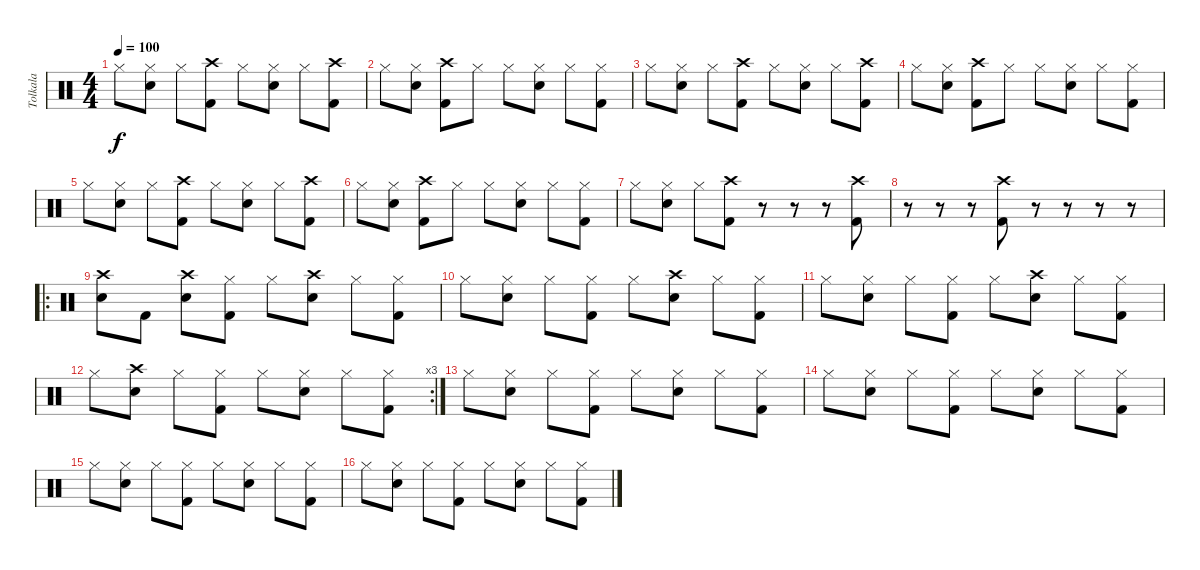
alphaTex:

\track ("Tolkala" "Tolkala") {instrument percussion}
\staff {score}
\articulation defaults
\ts (4 4)
\tempo 100
\clef neutral
\ks c "Hi-Hat (closed)".8{dy f}
("Hi-Hat (closed)" "Snare (hit) 2").8 "Hi-Hat (closed)".8 ("Crash high (hit)" "Kick (hit) 2").8 "Hi-Hat (closed)".8 ("Hi-Hat (closed)" "Snare (hit) 2").8 "Hi-Hat (closed)".8 ("Crash high (hit)" "Kick (hit) 2").8 |
"Hi-Hat (closed)".8 ("Hi-Hat (closed)" "Snare (hit) 2").8 ("Crash high (hit)" "Kick (hit) 2").8 "Hi-Hat (closed)".8 "Hi-Hat (closed)".8 ("Hi-Hat (closed)" "Snare (hit) 2").8 "Hi-Hat (closed)".8 ("Hi-Hat (closed)" "Kick (hit) 2").8 |
"Hi-Hat (closed)".8 ("Hi-Hat (closed)" "Snare (hit) 2").8 "Hi-Hat (closed)".8 ("Crash high (hit)" "Kick (hit) 2").8 "Hi-Hat (closed)".8 ("Hi-Hat (closed)" "Snare (hit) 2").8 "Hi-Hat (closed)".8 ("Crash high (hit)" "Kick (hit) 2").8 |
"Hi-Hat (closed)".8 ("Hi-Hat (closed)" "Snare (hit) 2").8 ("Crash high (hit)" "Kick (hit) 2").8 "Hi-Hat (closed)".8 "Hi-Hat (closed)".8 ("Hi-Hat (closed)" "Snare (hit) 2").8 "Hi-Hat (closed)".8 ("Hi-Hat (closed)" "Kick (hit) 2").8 |
"Hi-Hat (closed)".8 ("Hi-Hat (closed)" "Snare (hit) 2").8 "Hi-Hat (closed)".8 ("Crash high (hit)" "Kick (hit) 2").8 "Hi-Hat (closed)".8 ("Hi-Hat (closed)" "Snare (hit) 2").8 "Hi-Hat (closed)".8 ("Crash high (hit)" "Kick (hit) 2").8 |
"Hi-Hat (closed)".8 ("Hi-Hat (closed)" "Snare (hit) 2").8 ("Crash high (hit)" "Kick (hit) 2").8 "Hi-Hat (closed)".8 "Hi-Hat (closed)".8 ("Hi-Hat (closed)" "Snare (hit) 2").8 "Hi-Hat (closed)".8 ("Hi-Hat (closed)" "Kick (hit) 2").8 |
"Hi-Hat (closed)".8 ("Hi-Hat (closed)" "Snare (hit) 2").8 "Hi-Hat (closed)".8 ("Crash high (hit)" "Kick (hit) 2").8 r.8 r.8 r.8 ("Crash high (hit)" "Kick (hit) 2").8 |
r.8 r.8 r.8 ("Crash high (hit)" "Kick (hit) 2").8 r.8 r.8 r.8 r.8 |
\ro
("Crash high (hit)" "Snare (hit) 2").8 "Kick (hit) 2".8 ("Crash high (hit)" "Snare (hit) 2").8 ("Hi-Hat (closed)" "Kick (hit) 2").8 "Hi-Hat (closed)".8 ("Crash high (hit)" "Snare (hit) 2").8 "Hi-Hat (closed)".8 ("Hi-Hat (closed)" "Kick (hit) 2").8 |
"Hi-Hat (closed)".8 ("Hi-Hat (closed)" "Snare (hit) 2").8 "Hi-Hat (closed)".8 ("Hi-Hat (closed)" "Kick (hit) 2").8 "Hi-Hat (closed)".8 ("Crash high (hit)" "Snare (hit) 2").8 "Hi-Hat (closed)".8 ("Hi-Hat (closed)" "Kick (hit) 2").8 |
"Hi-Hat (closed)".8 ("Hi-Hat (closed)" "Snare (hit) 2").8 "Hi-Hat (closed)".8 ("Hi-Hat (closed)" "Kick (hit) 2").8 "Hi-Hat (closed)".8 ("Crash high (hit)" "Snare (hit) 2").8 "Hi-Hat (closed)".8 ("Hi-Hat (closed)" "Kick (hit) 2").8 |
\rc 3 "Hi-Hat (closed)".8
("Crash high (hit)" "Snare (hit) 2").8 "Hi-Hat (closed)".8 ("Hi-Hat (closed)" "Kick (hit) 2").8 "Hi-Hat (closed)".8 ("Hi-Hat (closed)" "Snare (hit) 2").8 "Hi-Hat (closed)".8 ("Hi-Hat (closed)" "Kick (hit) 2").8 |
"Hi-Hat (closed)".8 ("Hi-Hat (closed)" "Snare (hit) 2").8 "Hi-Hat (closed)".8 ("Hi-Hat (closed)" "Kick (hit) 2").8 "Hi-Hat (closed)".8 ("Hi-Hat (closed)" "Snare (hit) 2").8 "Hi-Hat (closed)".8 ("Hi-Hat (closed)" "Kick (hit) 2").8 |
"Hi-Hat (closed)".8 ("Hi-Hat (closed)" "Snare (hit) 2").8 "Hi-Hat (closed)".8 ("Hi-Hat (closed)" "Kick (hit) 2").8 "Hi-Hat (closed)".8 ("Hi-Hat (closed)" "Snare (hit) 2").8 "Hi-Hat (closed)".8 ("Hi-Hat (closed)" "Kick (hit) 2").8 |
"Hi-Hat (closed)".8 ("Hi-Hat (closed)" "Snare (hit) 2").8 "Hi-Hat (closed)".8 ("Hi-Hat (closed)" "Kick (hit) 2").8 "Hi-Hat (closed)".8 ("Hi-Hat (closed)" "Snare (hit) 2").8 "Hi-Hat (closed)".8 ("Hi-Hat (closed)" "Kick (hit) 2").8 |
"Hi-Hat (closed)".8 ("Hi-Hat (closed)" "Snare (hit) 2").8 "Hi-Hat (closed)".8 ("Hi-Hat (closed)" "Kick (hit) 2").8 "Hi-Hat (closed)".8 ("Hi-Hat (closed)" "Snare (hit) 2").8 "Hi-Hat (closed)".8 ("Hi-Hat (closed)" "Kick (hit) 2").8
